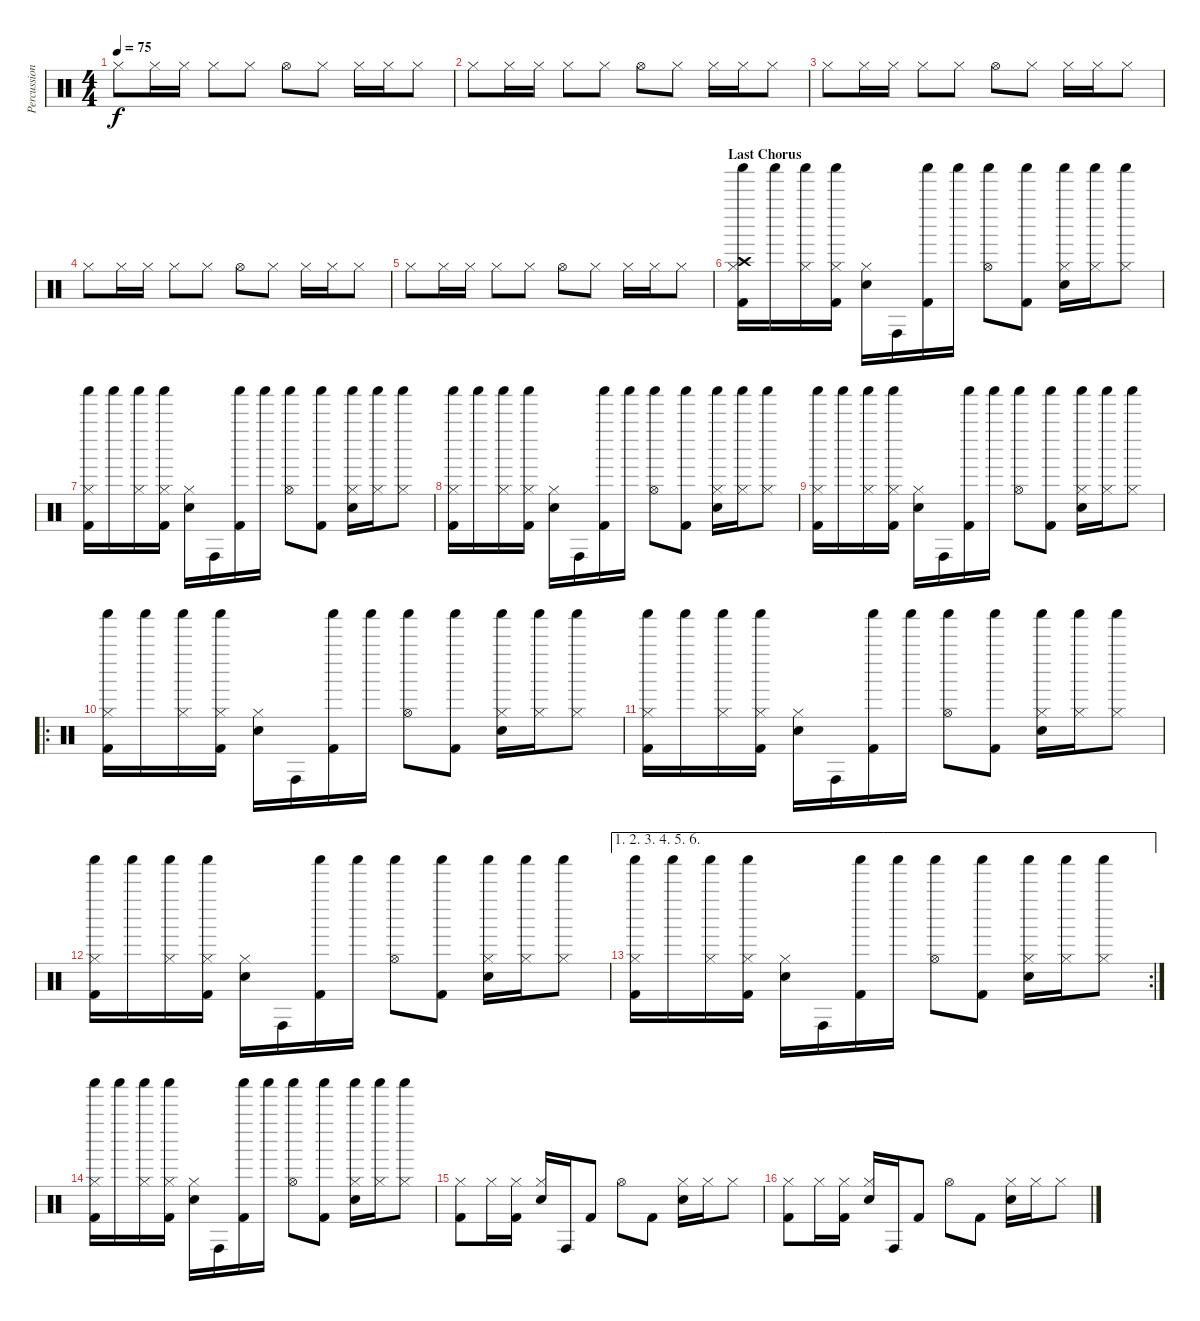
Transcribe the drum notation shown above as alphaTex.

\track ("Percussion" "Percussion") {instrument percussion}
\staff {score}
\articulation defaults
\ts (4 4)
\tempo 75
\clef neutral
\ks c "Hi-Hat (closed)".8{dy f} "Hi-Hat (closed)".16 "Hi-Hat (closed)".16 "Hi-Hat (closed)".8 "Hi-Hat (closed)".8 "Hi-Hat (open)".8 "Hi-Hat (closed)".8 "Hi-Hat (closed)".16 "Hi-Hat (closed)".16 "Hi-Hat (closed)".8
|
"Hi-Hat (closed)".8 "Hi-Hat (closed)".16 "Hi-Hat (closed)".16 "Hi-Hat (closed)".8 "Hi-Hat (closed)".8 "Hi-Hat (open)".8 "Hi-Hat (closed)".8 "Hi-Hat (closed)".16 "Hi-Hat (closed)".16 "Hi-Hat (closed)".8 |
"Hi-Hat (closed)".8 "Hi-Hat (closed)".16 "Hi-Hat (closed)".16 "Hi-Hat (closed)".8 "Hi-Hat (closed)".8 "Hi-Hat (open)".8 "Hi-Hat (closed)".8 "Hi-Hat (closed)".16 "Hi-Hat (closed)".16 "Hi-Hat (closed)".8 |
"Hi-Hat (closed)".8 "Hi-Hat (closed)".16 "Hi-Hat (closed)".16 "Hi-Hat (closed)".8 "Hi-Hat (closed)".8 "Hi-Hat (open)".8 "Hi-Hat (closed)".8 "Hi-Hat (closed)".16 "Hi-Hat (closed)".16 "Hi-Hat (closed)".8 |
"Hi-Hat (closed)".8 "Hi-Hat (closed)".16 "Hi-Hat (closed)".16 "Hi-Hat (closed)".8 "Hi-Hat (closed)".8 "Hi-Hat (open)".8 "Hi-Hat (closed)".8 "Hi-Hat (closed)".16 "Hi-Hat (closed)".16 "Hi-Hat (closed)".8 |
\section ("" "Last Chorus")
("Crash high (hit)" "Hi-Hat (closed)" "Shaker (hit)" "Kick (hit) 2").16 "Shaker (hit)".16 ("Hi-Hat (closed)" "Shaker (hit)").16 ("Hi-Hat (closed)" "Shaker (hit)" "Kick (hit) 2").16 ("Hi-Hat (closed)" "Electric Snare (hit)").16 "Conga high (hit)".16 ("Shaker (hit)" "Kick (hit) 2").16 "Shaker (hit)".16 ("Hi-Hat (open)" "Shaker (hit)").8 ("Shaker (hit)" "Kick (hit) 2").8 ("Hi-Hat (closed)" "Snare (hit) 2" "Shaker (hit)").16 ("Hi-Hat (closed)" "Shaker (hit)").16 ("Hi-Hat (closed)" "Shaker (hit)").8 |
("Hi-Hat (closed)" "Shaker (hit)" "Kick (hit) 2").16 "Shaker (hit)".16 ("Hi-Hat (closed)" "Shaker (hit)").16 ("Hi-Hat (closed)" "Shaker (hit)" "Kick (hit) 2").16 ("Hi-Hat (closed)" "Electric Snare (hit)").16 "Conga high (hit)".16 ("Shaker (hit)" "Kick (hit) 2").16 "Shaker (hit)".16 ("Hi-Hat (open)" "Shaker (hit)").8 ("Shaker (hit)" "Kick (hit) 2").8 ("Hi-Hat (closed)" "Snare (hit) 2" "Shaker (hit)").16 ("Hi-Hat (closed)" "Shaker (hit)").16 ("Hi-Hat (closed)" "Shaker (hit)").8 |
("Hi-Hat (closed)" "Shaker (hit)" "Kick (hit) 2").16 "Shaker (hit)".16 ("Hi-Hat (closed)" "Shaker (hit)").16 ("Hi-Hat (closed)" "Shaker (hit)" "Kick (hit) 2").16 ("Hi-Hat (closed)" "Electric Snare (hit)").16 "Conga high (hit)".16 ("Shaker (hit)" "Kick (hit) 2").16 "Shaker (hit)".16 ("Hi-Hat (open)" "Shaker (hit)").8 ("Shaker (hit)" "Kick (hit) 2").8 ("Hi-Hat (closed)" "Snare (hit) 2" "Shaker (hit)").16 ("Hi-Hat (closed)" "Shaker (hit)").16 ("Hi-Hat (closed)" "Shaker (hit)").8 |
("Hi-Hat (closed)" "Shaker (hit)" "Kick (hit) 2").16 "Shaker (hit)".16 ("Hi-Hat (closed)" "Shaker (hit)").16 ("Hi-Hat (closed)" "Shaker (hit)" "Kick (hit) 2").16 ("Hi-Hat (closed)" "Electric Snare (hit)").16 "Conga high (hit)".16 ("Shaker (hit)" "Kick (hit) 2").16 "Shaker (hit)".16 ("Hi-Hat (open)" "Shaker (hit)").8 ("Shaker (hit)" "Kick (hit) 2").8 ("Hi-Hat (closed)" "Snare (hit) 2" "Shaker (hit)").16 ("Hi-Hat (closed)" "Shaker (hit)").16 ("Hi-Hat (closed)" "Shaker (hit)").8 |
\ro
("Hi-Hat (closed)" "Shaker (hit)" "Kick (hit) 2").16 "Shaker (hit)".16 ("Hi-Hat (closed)" "Shaker (hit)").16 ("Hi-Hat (closed)" "Shaker (hit)" "Kick (hit) 2").16 ("Hi-Hat (closed)" "Electric Snare (hit)").16 "Conga high (hit)".16 ("Shaker (hit)" "Kick (hit) 2").16 "Shaker (hit)".16 ("Hi-Hat (open)" "Shaker (hit)").8 ("Shaker (hit)" "Kick (hit) 2").8 ("Hi-Hat (closed)" "Snare (hit) 2" "Shaker (hit)").16 ("Hi-Hat (closed)" "Shaker (hit)").16 ("Hi-Hat (closed)" "Shaker (hit)").8 |
("Hi-Hat (closed)" "Shaker (hit)" "Kick (hit) 2").16 "Shaker (hit)".16 ("Hi-Hat (closed)" "Shaker (hit)").16 ("Hi-Hat (closed)" "Shaker (hit)" "Kick (hit) 2").16 ("Hi-Hat (closed)" "Electric Snare (hit)").16 "Conga high (hit)".16 ("Shaker (hit)" "Kick (hit) 2").16 "Shaker (hit)".16 ("Hi-Hat (open)" "Shaker (hit)").8 ("Shaker (hit)" "Kick (hit) 2").8 ("Hi-Hat (closed)" "Snare (hit) 2" "Shaker (hit)").16 ("Hi-Hat (closed)" "Shaker (hit)").16 ("Hi-Hat (closed)" "Shaker (hit)").8 |
("Hi-Hat (closed)" "Shaker (hit)" "Kick (hit) 2").16 "Shaker (hit)".16 ("Hi-Hat (closed)" "Shaker (hit)").16 ("Hi-Hat (closed)" "Shaker (hit)" "Kick (hit) 2").16 ("Hi-Hat (closed)" "Electric Snare (hit)").16 "Conga high (hit)".16 ("Shaker (hit)" "Kick (hit) 2").16 "Shaker (hit)".16 ("Hi-Hat (open)" "Shaker (hit)").8 ("Shaker (hit)" "Kick (hit) 2").8 ("Hi-Hat (closed)" "Snare (hit) 2" "Shaker (hit)").16 ("Hi-Hat (closed)" "Shaker (hit)").16 ("Hi-Hat (closed)" "Shaker (hit)").8 |
\ae (1 2 3 4 5 6)
\rc 2
("Hi-Hat (closed)" "Shaker (hit)" "Kick (hit) 2").16 "Shaker (hit)".16 ("Hi-Hat (closed)" "Shaker (hit)").16 ("Hi-Hat (closed)" "Shaker (hit)" "Kick (hit) 2").16 ("Hi-Hat (closed)" "Electric Snare (hit)").16 "Conga high (hit)".16 ("Shaker (hit)" "Kick (hit) 2").16 "Shaker (hit)".16 ("Hi-Hat (open)" "Shaker (hit)").8 ("Shaker (hit)" "Kick (hit) 2").8 ("Hi-Hat (closed)" "Snare (hit) 2" "Shaker (hit)").16 ("Hi-Hat (closed)" "Shaker (hit)").16 ("Hi-Hat (closed)" "Shaker (hit)").8 |
("Hi-Hat (closed)" "Shaker (hit)" "Kick (hit) 2").16 "Shaker (hit)".16 ("Hi-Hat (closed)" "Shaker (hit)").16 ("Hi-Hat (closed)" "Shaker (hit)" "Kick (hit) 2").16 ("Hi-Hat (closed)" "Electric Snare (hit)").16 "Conga high (hit)".16 ("Shaker (hit)" "Kick (hit) 2").16 "Shaker (hit)".16 ("Hi-Hat (open)" "Shaker (hit)").8 ("Shaker (hit)" "Kick (hit) 2").8 ("Hi-Hat (closed)" "Snare (hit) 2" "Shaker (hit)").16 ("Hi-Hat (closed)" "Shaker (hit)").16 ("Hi-Hat (closed)" "Shaker (hit)").8 |
("Hi-Hat (closed)" "Kick (hit) 2").8 "Hi-Hat (closed)".16 ("Hi-Hat (closed)" "Kick (hit) 2").16 ("Hi-Hat (closed)" "Electric Snare (hit)").16 "Conga high (hit)".16 "Kick (hit) 2".8 "Hi-Hat (open)".8 "Kick (hit) 2".8 ("Hi-Hat (closed)" "Snare (hit) 2").16 "Hi-Hat (closed)".16 "Hi-Hat (closed)".8 |
("Hi-Hat (closed)" "Kick (hit) 2").8 "Hi-Hat (closed)".16 ("Hi-Hat (closed)" "Kick (hit) 2").16 ("Hi-Hat (closed)" "Electric Snare (hit)").16 "Conga high (hit)".16 "Kick (hit) 2".8 "Hi-Hat (open)".8 "Kick (hit) 2".8 ("Hi-Hat (closed)" "Snare (hit) 2").16 "Hi-Hat (closed)".16 "Hi-Hat (closed)".8
